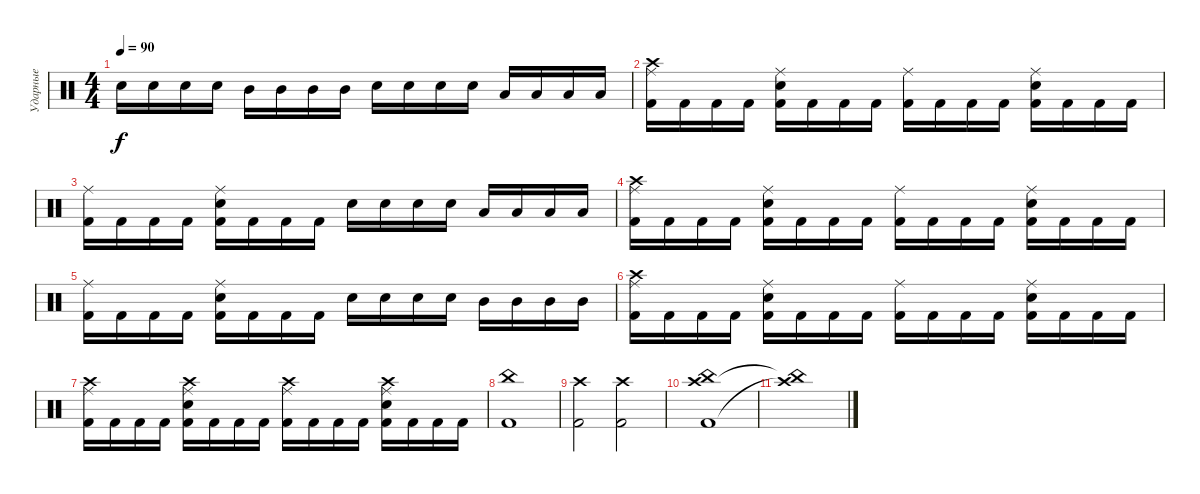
\track ("Ударные" "Ударные") {instrument percussion}
\staff {score}
\articulation defaults
\ts (4 4)
\tempo 90
\clef neutral
\ks c "Snare (hit) 2".16{dy f} "Snare (hit) 2".16 "Snare (hit) 2".16 "Snare (hit) 2".16 "Mid Tom (hit)".16 "Mid Tom (hit)".16 "Mid Tom (hit)".16 "Mid Tom (hit)".16 "Snare (hit) 2".16 "Snare (hit) 2".16 "Snare (hit) 2".16 "Snare (hit) 2".16 "Low Tom (hit)".16 "Low Tom (hit)".16 "Low Tom (hit)".16 "Low Tom (hit)".16
|
("Kick (hit) 2" "Ride (middle)" "Crash high (hit)").16 "Kick (hit) 2".16 "Kick (hit) 2".16 "Kick (hit) 2".16 ("Kick (hit) 2" "Ride (middle)" "Snare (hit) 2").16 "Kick (hit) 2".16 "Kick (hit) 2".16 "Kick (hit) 2".16 ("Kick (hit) 2" "Ride (middle)").16 "Kick (hit) 2".16 "Kick (hit) 2".16 "Kick (hit) 2".16 ("Kick (hit) 2" "Ride (middle)" "Snare (hit) 2").16 "Kick (hit) 2".16 "Kick (hit) 2".16 "Kick (hit) 2".16 |
("Kick (hit) 2" "Ride (middle)").16 "Kick (hit) 2".16 "Kick (hit) 2".16 "Kick (hit) 2".16 ("Kick (hit) 2" "Ride (middle)" "Snare (hit) 2").16 "Kick (hit) 2".16 "Kick (hit) 2".16 "Kick (hit) 2".16 "Snare (hit) 2".16 "Snare (hit) 2".16 "Snare (hit) 2".16 "Snare (hit) 2".16 "Low Tom (hit)".16 "Low Tom (hit)".16 "Low Tom (hit)".16 "Low Tom (hit)".16 |
("Kick (hit) 2" "Ride (middle)" "Crash high (hit)").16 "Kick (hit) 2".16 "Kick (hit) 2".16 "Kick (hit) 2".16 ("Kick (hit) 2" "Ride (middle)" "Snare (hit) 2").16 "Kick (hit) 2".16 "Kick (hit) 2".16 "Kick (hit) 2".16 ("Kick (hit) 2" "Ride (middle)").16 "Kick (hit) 2".16 "Kick (hit) 2".16 "Kick (hit) 2".16 ("Kick (hit) 2" "Ride (middle)" "Snare (hit) 2").16 "Kick (hit) 2".16 "Kick (hit) 2".16 "Kick (hit) 2".16 |
("Kick (hit) 2" "Ride (middle)").16 "Kick (hit) 2".16 "Kick (hit) 2".16 "Kick (hit) 2".16 ("Kick (hit) 2" "Ride (middle)" "Snare (hit) 2").16 "Kick (hit) 2".16 "Kick (hit) 2".16 "Kick (hit) 2".16 "Snare (hit) 2".16 "Snare (hit) 2".16 "Snare (hit) 2".16 "Snare (hit) 2".16 "Mid Tom (hit)".16 "Mid Tom (hit)".16 "Mid Tom (hit)".16 "Mid Tom (hit)".16 |
("Kick (hit) 2" "Ride (middle)" "Crash high (hit)").16 "Kick (hit) 2".16 "Kick (hit) 2".16 "Kick (hit) 2".16 ("Kick (hit) 2" "Ride (middle)" "Snare (hit) 2").16 "Kick (hit) 2".16 "Kick (hit) 2".16 "Kick (hit) 2".16 ("Kick (hit) 2" "Ride (middle)").16 "Kick (hit) 2".16 "Kick (hit) 2".16 "Kick (hit) 2".16 ("Kick (hit) 2" "Ride (middle)" "Snare (hit) 2").16 "Kick (hit) 2".16 "Kick (hit) 2".16 "Kick (hit) 2".16 |
("Kick (hit) 2" "Ride (middle)" "Crash high (hit)").16 "Kick (hit) 2".16 "Kick (hit) 2".16 "Kick (hit) 2".16 ("Kick (hit) 2" "Ride (middle)" "Snare (hit) 2" "Crash high (hit)").16 "Kick (hit) 2".16 "Kick (hit) 2".16 "Kick (hit) 2".16 ("Kick (hit) 2" "Ride (middle)" "Crash high (hit)").16 "Kick (hit) 2".16 "Kick (hit) 2".16 "Kick (hit) 2".16 ("Kick (hit) 2" "Ride (middle)" "Snare (hit) 2" "Crash high (hit)").16 "Kick (hit) 2".16 "Kick (hit) 2".16 "Kick (hit) 2".16 |
("Kick (hit) 2" "China (hit)").1 |
("Kick (hit) 2" "Crash high (hit)").2 ("Kick (hit) 2" "Crash high (hit)").2 |
("Kick (hit) 2" "Crash high (hit)" "China (hit)").1 |
("Crash high (hit)"{t} "China (hit)"{t}).1
